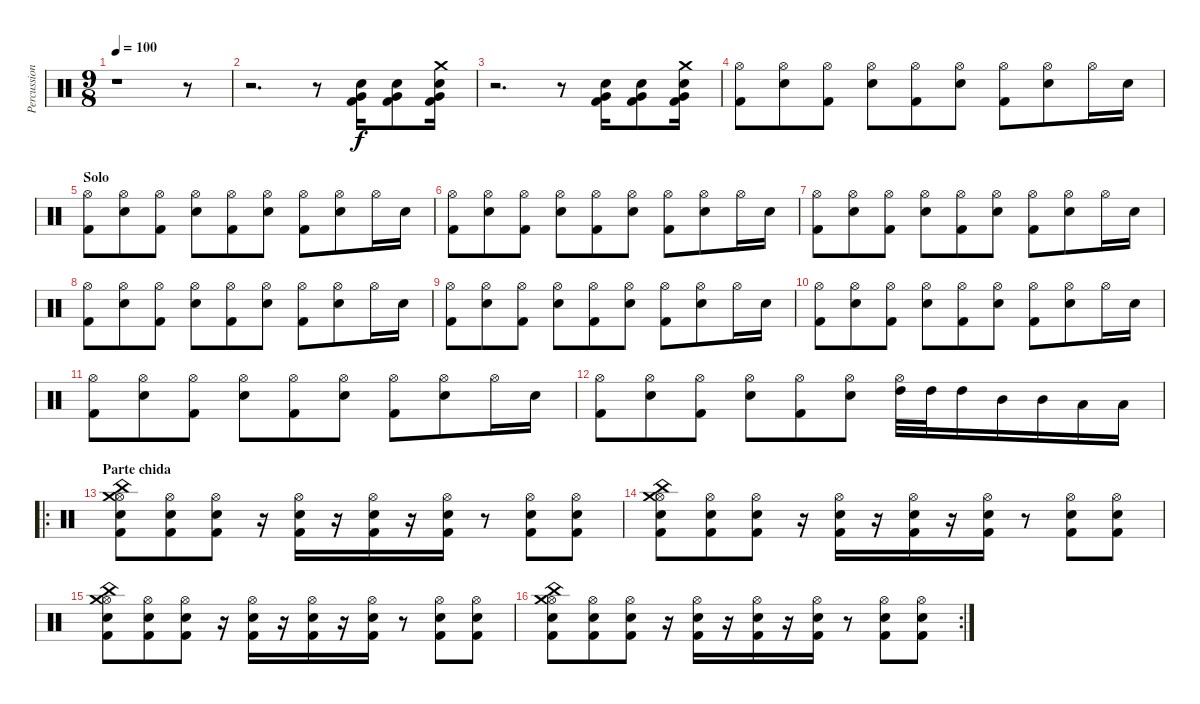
\track ("Percussion" "Percussion") {instrument percussion}
\staff {score}
\articulation defaults
\ts (9 8)
\tempo 100
\clef neutral
\ks c
r.1{dy f} r.8 |
r.2{d} r.8 ("Electric Snare (hit)" "Very Low Tom (hit)" "Kick (hit) 2").16 ("Electric Snare (hit)" "Very Low Tom (hit)" "Kick (hit) 2").8 ("Crash medium (hit)" "Electric Snare (hit)" "Very Low Tom (hit)" "Kick (hit) 2").16 |
r.2{d} r.8 ("Electric Snare (hit)" "Very Low Tom (hit)" "Kick (hit) 2").16 ("Electric Snare (hit)" "Very Low Tom (hit)" "Kick (hit) 2").8 ("Crash medium (hit)" "Electric Snare (hit)" "Very Low Tom (hit)" "Kick (hit) 2").16 |
("Hi-Hat (open)" "Kick (hit) 2").8 ("Hi-Hat (open)" "Electric Snare (hit)").8 ("Hi-Hat (open)" "Kick (hit) 2").8 ("Hi-Hat (open)" "Electric Snare (hit)").8 ("Hi-Hat (open)" "Kick (hit) 2").8 ("Hi-Hat (open)" "Electric Snare (hit)").8 ("Hi-Hat (open)" "Kick (hit) 2").8 ("Hi-Hat (open)" "Electric Snare (hit)").8 "Hi-Hat (open)".16 "Electric Snare (hit)".16 |
\section ("" "Solo")
("Hi-Hat (open)" "Kick (hit) 2").8 ("Hi-Hat (open)" "Electric Snare (hit)").8 ("Hi-Hat (open)" "Kick (hit) 2").8 ("Hi-Hat (open)" "Electric Snare (hit)").8 ("Hi-Hat (open)" "Kick (hit) 2").8 ("Hi-Hat (open)" "Electric Snare (hit)").8 ("Hi-Hat (open)" "Kick (hit) 2").8 ("Hi-Hat (open)" "Electric Snare (hit)").8 "Hi-Hat (open)".16 "Electric Snare (hit)".16 |
("Hi-Hat (open)" "Kick (hit) 2").8 ("Hi-Hat (open)" "Electric Snare (hit)").8 ("Hi-Hat (open)" "Kick (hit) 2").8 ("Hi-Hat (open)" "Electric Snare (hit)").8 ("Hi-Hat (open)" "Kick (hit) 2").8 ("Hi-Hat (open)" "Electric Snare (hit)").8 ("Hi-Hat (open)" "Kick (hit) 2").8 ("Hi-Hat (open)" "Electric Snare (hit)").8 "Hi-Hat (open)".16 "Electric Snare (hit)".16 |
("Hi-Hat (open)" "Kick (hit) 2").8 ("Hi-Hat (open)" "Electric Snare (hit)").8 ("Hi-Hat (open)" "Kick (hit) 2").8 ("Hi-Hat (open)" "Electric Snare (hit)").8 ("Hi-Hat (open)" "Kick (hit) 2").8 ("Hi-Hat (open)" "Electric Snare (hit)").8 ("Hi-Hat (open)" "Kick (hit) 2").8 ("Hi-Hat (open)" "Electric Snare (hit)").8 "Hi-Hat (open)".16 "Electric Snare (hit)".16 |
("Hi-Hat (open)" "Kick (hit) 2").8 ("Hi-Hat (open)" "Electric Snare (hit)").8 ("Hi-Hat (open)" "Kick (hit) 2").8 ("Hi-Hat (open)" "Electric Snare (hit)").8 ("Hi-Hat (open)" "Kick (hit) 2").8 ("Hi-Hat (open)" "Electric Snare (hit)").8 ("Hi-Hat (open)" "Kick (hit) 2").8 ("Hi-Hat (open)" "Electric Snare (hit)").8 "Hi-Hat (open)".16 "Electric Snare (hit)".16 |
("Hi-Hat (open)" "Kick (hit) 2").8 ("Hi-Hat (open)" "Electric Snare (hit)").8 ("Hi-Hat (open)" "Kick (hit) 2").8 ("Hi-Hat (open)" "Electric Snare (hit)").8 ("Hi-Hat (open)" "Kick (hit) 2").8 ("Hi-Hat (open)" "Electric Snare (hit)").8 ("Hi-Hat (open)" "Kick (hit) 2").8 ("Hi-Hat (open)" "Electric Snare (hit)").8 "Hi-Hat (open)".16 "Electric Snare (hit)".16 |
("Hi-Hat (open)" "Kick (hit) 2").8 ("Hi-Hat (open)" "Electric Snare (hit)").8 ("Hi-Hat (open)" "Kick (hit) 2").8 ("Hi-Hat (open)" "Electric Snare (hit)").8 ("Hi-Hat (open)" "Kick (hit) 2").8 ("Hi-Hat (open)" "Electric Snare (hit)").8 ("Hi-Hat (open)" "Kick (hit) 2").8 ("Hi-Hat (open)" "Electric Snare (hit)").8 "Hi-Hat (open)".16 "Electric Snare (hit)".16 |
("Hi-Hat (open)" "Kick (hit) 2").8 ("Hi-Hat (open)" "Electric Snare (hit)").8 ("Hi-Hat (open)" "Kick (hit) 2").8 ("Hi-Hat (open)" "Electric Snare (hit)").8 ("Hi-Hat (open)" "Kick (hit) 2").8 ("Hi-Hat (open)" "Electric Snare (hit)").8 ("Hi-Hat (open)" "Kick (hit) 2").8 ("Hi-Hat (open)" "Electric Snare (hit)").8 "Hi-Hat (open)".16 "Electric Snare (hit)".16 |
("Hi-Hat (open)" "Kick (hit) 2").8 ("Hi-Hat (open)" "Electric Snare (hit)").8 ("Hi-Hat (open)" "Kick (hit) 2").8 ("Hi-Hat (open)" "Electric Snare (hit)").8 ("Hi-Hat (open)" "Kick (hit) 2").8 ("Hi-Hat (open)" "Electric Snare (hit)").8 ("Hi-Hat (open)" "High Tom (hit)").32 "High Tom (hit)".32 "High Tom (hit)".16 "Mid Tom (hit)".16 "Mid Tom (hit)".16 "Low Tom (hit)".16 "Low Tom (hit)".16 |
\ro
\section ("" "Parte chida")
("Hi-Hat (open)" "Crash medium (hit)" "Electric Snare (hit)" "China (hit)" "Kick (hit) 2").8 ("Hi-Hat (open)" "Electric Snare (hit)" "Kick (hit) 2").8 ("Hi-Hat (open)" "Electric Snare (hit)" "Kick (hit) 2").8 r.16 ("Hi-Hat (open)" "Electric Snare (hit)" "Kick (hit) 2").16 r.16 ("Hi-Hat (open)" "Electric Snare (hit)" "Kick (hit) 2").16 r.16 ("Hi-Hat (open)" "Electric Snare (hit)" "Kick (hit) 2").16 r.8 ("Hi-Hat (open)" "Electric Snare (hit)" "Kick (hit) 2").8 ("Hi-Hat (open)" "Electric Snare (hit)" "Kick (hit) 2").8 |
("Hi-Hat (open)" "Crash medium (hit)" "Electric Snare (hit)" "China (hit)" "Kick (hit) 2").8 ("Hi-Hat (open)" "Electric Snare (hit)" "Kick (hit) 2").8 ("Hi-Hat (open)" "Electric Snare (hit)" "Kick (hit) 2").8 r.16 ("Hi-Hat (open)" "Electric Snare (hit)" "Kick (hit) 2").16 r.16 ("Hi-Hat (open)" "Electric Snare (hit)" "Kick (hit) 2").16 r.16 ("Hi-Hat (open)" "Electric Snare (hit)" "Kick (hit) 2").16 r.8 ("Hi-Hat (open)" "Electric Snare (hit)" "Kick (hit) 2").8 ("Hi-Hat (open)" "Electric Snare (hit)" "Kick (hit) 2").8 |
("Hi-Hat (open)" "Crash medium (hit)" "Electric Snare (hit)" "China (hit)" "Kick (hit) 2").8 ("Hi-Hat (open)" "Electric Snare (hit)" "Kick (hit) 2").8 ("Hi-Hat (open)" "Electric Snare (hit)" "Kick (hit) 2").8 r.16 ("Hi-Hat (open)" "Electric Snare (hit)" "Kick (hit) 2").16 r.16 ("Hi-Hat (open)" "Electric Snare (hit)" "Kick (hit) 2").16 r.16 ("Hi-Hat (open)" "Electric Snare (hit)" "Kick (hit) 2").16 r.8 ("Hi-Hat (open)" "Electric Snare (hit)" "Kick (hit) 2").8 ("Hi-Hat (open)" "Electric Snare (hit)" "Kick (hit) 2").8 |
\rc 2
("Hi-Hat (open)" "Crash medium (hit)" "Electric Snare (hit)" "China (hit)" "Kick (hit) 2").8 ("Hi-Hat (open)" "Electric Snare (hit)" "Kick (hit) 2").8 ("Hi-Hat (open)" "Electric Snare (hit)" "Kick (hit) 2").8 r.16 ("Hi-Hat (open)" "Electric Snare (hit)" "Kick (hit) 2").16 r.16 ("Hi-Hat (open)" "Electric Snare (hit)" "Kick (hit) 2").16 r.16 ("Hi-Hat (open)" "Electric Snare (hit)" "Kick (hit) 2").16 r.8 ("Hi-Hat (open)" "Electric Snare (hit)" "Kick (hit) 2").8 ("Hi-Hat (open)" "Electric Snare (hit)" "Kick (hit) 2").8
